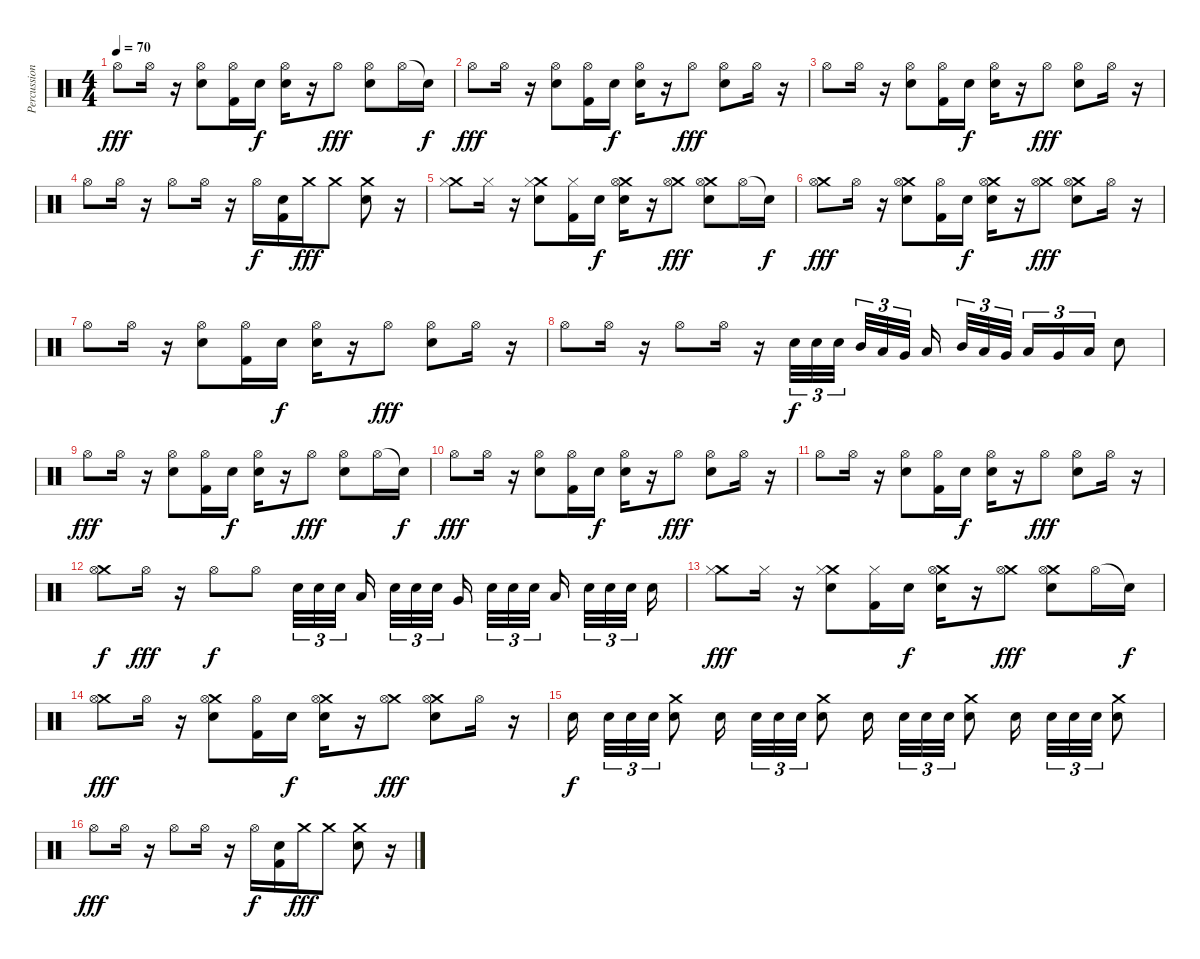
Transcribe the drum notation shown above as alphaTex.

\track ("Percussion" "Percussion") {instrument percussion}
\staff {score}
\articulation defaults
\ts (4 4)
\tempo 70
\clef neutral
\ks c "Hi-Hat (open)".8{dy fff} "Hi-Hat (open)".16
r.16 ("Hi-Hat (open)" "Electric Snare (hit)").8 ("Hi-Hat (open)" "Kick (hit) 2").16 "Electric Snare (hit)".16{dy f} ("Hi-Hat (open)" "Electric Snare (hit)").16 r.16 "Hi-Hat (open)".8{dy fff} ("Hi-Hat (open)" "Electric Snare (hit)").8 "Hi-Hat (open)".16 "Snare (hit)"{t}.16{dy f} |
"Hi-Hat (open)".8{dy fff} "Hi-Hat (open)".16 r.16 ("Hi-Hat (open)" "Electric Snare (hit)").8 ("Hi-Hat (open)" "Kick (hit) 2").16 "Electric Snare (hit)".16{dy f} ("Hi-Hat (open)" "Electric Snare (hit)").16 r.16 "Hi-Hat (open)".8{dy fff} ("Hi-Hat (open)" "Electric Snare (hit)").8 "Hi-Hat (open)".16 r.16 |
"Hi-Hat (open)".8 "Hi-Hat (open)".16 r.16 ("Hi-Hat (open)" "Electric Snare (hit)").8 ("Hi-Hat (open)" "Kick (hit) 2").16 "Electric Snare (hit)".16{dy f} ("Hi-Hat (open)" "Electric Snare (hit)").16 r.16 "Hi-Hat (open)".8{dy fff} ("Hi-Hat (open)" "Electric Snare (hit)").8 "Hi-Hat (open)".16 r.16 |
"Hi-Hat (open)".8 "Hi-Hat (open)".16 r.16 "Hi-Hat (open)".8 "Hi-Hat (open)".16 r.16 "Hi-Hat (open)".16{dy f} ("Electric Snare (hit)" "Kick (hit) 2").16 "Crash medium (hit)".16{dy fff} "Crash medium (hit)".8 ("Crash medium (hit)" "Electric Snare (hit)").8 r.16 |
("Crash medium (hit)" "Hi-Hat (closed)").8 "Hi-Hat (closed)".16 r.16 ("Crash medium (hit)" "Hi-Hat (closed)" "Electric Snare (hit)").8 ("Hi-Hat (closed)" "Kick (hit) 2").16 "Electric Snare (hit)".16{dy f} ("Crash medium (hit)" "Hi-Hat (open)" "Electric Snare (hit)").16 r.16 ("Crash medium (hit)" "Hi-Hat (open)").8{dy fff} ("Crash medium (hit)" "Hi-Hat (open)" "Electric Snare (hit)").8 "Hi-Hat (open)".16 "Snare (hit)"{t}.16{dy f} |
("Crash medium (hit)" "Hi-Hat (open)").8{dy fff} "Hi-Hat (open)".16 r.16 ("Crash medium (hit)" "Hi-Hat (open)" "Electric Snare (hit)").8 ("Hi-Hat (open)" "Kick (hit) 2").16 "Electric Snare (hit)".16{dy f} ("Crash medium (hit)" "Hi-Hat (open)" "Electric Snare (hit)").16 r.16 ("Crash medium (hit)" "Hi-Hat (open)").8{dy fff} ("Crash medium (hit)" "Hi-Hat (open)" "Electric Snare (hit)").8 "Hi-Hat (open)".16 r.16 |
"Hi-Hat (open)".8 "Hi-Hat (open)".16 r.16 ("Hi-Hat (open)" "Electric Snare (hit)").8 ("Hi-Hat (open)" "Kick (hit) 2").16 "Electric Snare (hit)".16{dy f} ("Hi-Hat (open)" "Electric Snare (hit)").16 r.16 "Hi-Hat (open)".8{dy fff} ("Hi-Hat (open)" "Electric Snare (hit)").8 "Hi-Hat (open)".16 r.16 |
"Hi-Hat (open)".8 "Hi-Hat (open)".16 r.16 "Hi-Hat (open)".8 "Hi-Hat (open)".16 r.16 "Electric Snare (hit)".32{tu (3 2) dy f} "Electric Snare (hit)".32{tu (3 2)} "Electric Snare (hit)".32{tu (3 2) beam splitsecondary} "Mid Tom (hit)".32{tu (3 2)} "Low Tom (hit)".32{tu (3 2)} "Very Low Tom (hit)".32{tu (3 2) beam splitsecondary} "Low Floor Tom (hit)".16{beam splitsecondary} "Mid Tom (hit)".32{tu (3 2)} "Low Tom (hit)".32{tu (3 2)} "Very Low Tom (hit)".32{tu (3 2)} "Low Floor Tom (hit)".16{tu (3 2)} "Very Low Tom (hit)".16{tu (3 2)} "Low Floor Tom (hit)".16{tu (3 2)} "Electric Snare (hit)".8 |
"Hi-Hat (open)".8{dy fff} "Hi-Hat (open)".16 r.16 ("Hi-Hat (open)" "Electric Snare (hit)").8 ("Hi-Hat (open)" "Kick (hit) 2").16 "Electric Snare (hit)".16{dy f} ("Hi-Hat (open)" "Electric Snare (hit)").16 r.16 "Hi-Hat (open)".8{dy fff} ("Hi-Hat (open)" "Electric Snare (hit)").8 "Hi-Hat (open)".16 "Snare (hit)"{t}.16{dy f} |
"Hi-Hat (open)".8{dy fff} "Hi-Hat (open)".16 r.16 ("Hi-Hat (open)" "Electric Snare (hit)").8 ("Hi-Hat (open)" "Kick (hit) 2").16 "Electric Snare (hit)".16{dy f} ("Hi-Hat (open)" "Electric Snare (hit)").16 r.16 "Hi-Hat (open)".8{dy fff} ("Hi-Hat (open)" "Electric Snare (hit)").8 "Hi-Hat (open)".16 r.16 |
"Hi-Hat (open)".8 "Hi-Hat (open)".16 r.16 ("Hi-Hat (open)" "Electric Snare (hit)").8 ("Hi-Hat (open)" "Kick (hit) 2").16 "Electric Snare (hit)".16{dy f} ("Hi-Hat (open)" "Electric Snare (hit)").16 r.16 "Hi-Hat (open)".8{dy fff} ("Hi-Hat (open)" "Electric Snare (hit)").8 "Hi-Hat (open)".16 r.16 |
("Crash medium (hit)" "Hi-Hat (open)").8{dy f} "Hi-Hat (open)".16{dy fff} r.16 "Hi-Hat (open)".8{dy f} "Hi-Hat (open)".8 "Electric Snare (hit)".32{tu (3 2)} "Electric Snare (hit)".32{tu (3 2)} "Electric Snare (hit)".32{tu (3 2) beam splitsecondary} "Low Tom (hit)".16{beam splitsecondary} "Electric Snare (hit)".32{tu (3 2)} "Electric Snare (hit)".32{tu (3 2)} "Electric Snare (hit)".32{tu (3 2) beam splitsecondary} "Very Low Tom (hit)".16 "Electric Snare (hit)".32{tu (3 2)} "Electric Snare (hit)".32{tu (3 2)} "Electric Snare (hit)".32{tu (3 2) beam splitsecondary} "Low Tom (hit)".16{beam splitsecondary} "Electric Snare (hit)".32{tu (3 2)} "Electric Snare (hit)".32{tu (3 2)} "Electric Snare (hit)".32{tu (3 2) beam splitsecondary} "Electric Snare (hit)".16 |
("Crash medium (hit)" "Hi-Hat (closed)").8{dy fff} "Hi-Hat (closed)".16 r.16 ("Crash medium (hit)" "Hi-Hat (closed)" "Electric Snare (hit)").8 ("Hi-Hat (closed)" "Kick (hit) 2").16 "Electric Snare (hit)".16{dy f} ("Crash medium (hit)" "Hi-Hat (open)" "Electric Snare (hit)").16 r.16 ("Crash medium (hit)" "Hi-Hat (open)").8{dy fff} ("Crash medium (hit)" "Hi-Hat (open)" "Electric Snare (hit)").8 "Hi-Hat (open)".16 "Snare (hit)"{t}.16{dy f} |
("Crash medium (hit)" "Hi-Hat (open)").8{dy fff} "Hi-Hat (open)".16 r.16 ("Crash medium (hit)" "Hi-Hat (open)" "Electric Snare (hit)").8 ("Hi-Hat (open)" "Kick (hit) 2").16 "Electric Snare (hit)".16{dy f} ("Crash medium (hit)" "Hi-Hat (open)" "Electric Snare (hit)").16 r.16 ("Crash medium (hit)" "Hi-Hat (open)").8{dy fff} ("Crash medium (hit)" "Hi-Hat (open)" "Electric Snare (hit)").8 "Hi-Hat (open)".16 r.16 |
"Electric Snare (hit)".16{dy f beam splitsecondary} "Electric Snare (hit)".32{tu (3 2)} "Electric Snare (hit)".32{tu (3 2)} "Electric Snare (hit)".32{tu (3 2)} ("Crash medium (hit)" "Electric Snare (hit)").8 "Electric Snare (hit)".16{beam splitsecondary} "Electric Snare (hit)".32{tu (3 2)} "Electric Snare (hit)".32{tu (3 2)} "Electric Snare (hit)".32{tu (3 2)} ("Crash medium (hit)" "Electric Snare (hit)").8 "Electric Snare (hit)".16{beam splitsecondary} "Electric Snare (hit)".32{tu (3 2)} "Electric Snare (hit)".32{tu (3 2)} "Electric Snare (hit)".32{tu (3 2)} ("Crash medium (hit)" "Electric Snare (hit)").8 "Electric Snare (hit)".16{beam splitsecondary} "Electric Snare (hit)".32{tu (3 2)} "Electric Snare (hit)".32{tu (3 2)} "Electric Snare (hit)".32{tu (3 2)} ("Crash medium (hit)" "Electric Snare (hit)").8 |
"Hi-Hat (open)".8{dy fff} "Hi-Hat (open)".16 r.16 "Hi-Hat (open)".8 "Hi-Hat (open)".16 r.16 "Hi-Hat (open)".16{dy f} ("Electric Snare (hit)" "Kick (hit) 2").16 "Crash medium (hit)".16{dy fff} "Crash medium (hit)".8 ("Crash medium (hit)" "Electric Snare (hit)").8 r.16
